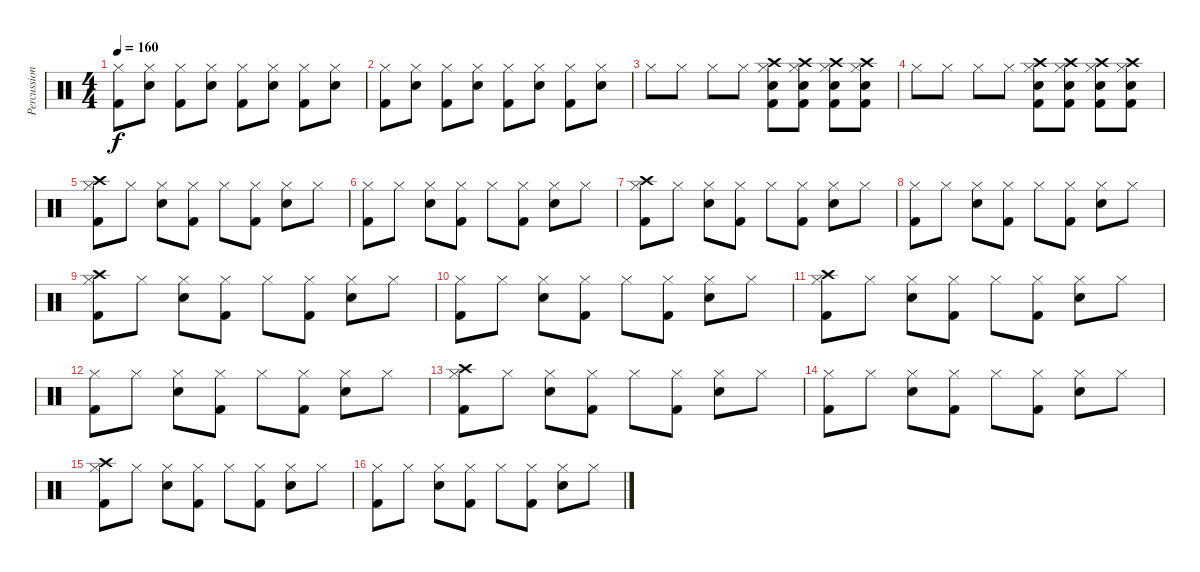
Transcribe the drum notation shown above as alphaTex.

\track ("Percussion" "Percussion") {instrument percussion}
\staff {score}
\articulation defaults
\ts (4 4)
\tempo 160
\clef neutral
\ks c
("Hi-Hat (closed)" "Kick (hit) 2").8{dy f} ("Hi-Hat (closed)" "Electric Snare (hit)").8 ("Hi-Hat (closed)" "Kick (hit) 2").8 ("Hi-Hat (closed)" "Electric Snare (hit)").8 ("Hi-Hat (closed)" "Kick (hit) 2").8 ("Hi-Hat (closed)" "Electric Snare (hit)").8 ("Hi-Hat (closed)" "Kick (hit) 2").8 ("Hi-Hat (closed)" "Electric Snare (hit)").8 |
("Hi-Hat (closed)" "Kick (hit) 2").8 ("Hi-Hat (closed)" "Electric Snare (hit)").8 ("Hi-Hat (closed)" "Kick (hit) 2").8 ("Hi-Hat (closed)" "Electric Snare (hit)").8 ("Hi-Hat (closed)" "Kick (hit) 2").8 ("Hi-Hat (closed)" "Electric Snare (hit)").8 ("Hi-Hat (closed)" "Kick (hit) 2").8 ("Hi-Hat (closed)" "Electric Snare (hit)").8 |
"Hi-Hat (closed)".8 "Hi-Hat (closed)".8 "Hi-Hat (closed)".8 "Hi-Hat (closed)".8 ("Hi-Hat (closed)" "Electric Snare (hit)" "Kick (hit) 2" "Crash high (hit)").8 ("Hi-Hat (closed)" "Electric Snare (hit)" "Kick (hit) 2" "Crash high (hit)").8 ("Hi-Hat (closed)" "Electric Snare (hit)" "Kick (hit) 2" "Crash high (hit)").8 ("Hi-Hat (closed)" "Electric Snare (hit)" "Kick (hit) 2" "Crash high (hit)").8 |
"Hi-Hat (closed)".8 "Hi-Hat (closed)".8 "Hi-Hat (closed)".8 "Hi-Hat (closed)".8 ("Hi-Hat (closed)" "Electric Snare (hit)" "Kick (hit) 2" "Crash high (hit)").8 ("Hi-Hat (closed)" "Electric Snare (hit)" "Kick (hit) 2" "Crash high (hit)").8 ("Hi-Hat (closed)" "Electric Snare (hit)" "Kick (hit) 2" "Crash high (hit)").8 ("Hi-Hat (closed)" "Electric Snare (hit)" "Kick (hit) 2" "Crash high (hit)").8 |
("Hi-Hat (closed)" "Kick (hit) 2" "Crash high (hit)").8 "Hi-Hat (closed)".8 ("Hi-Hat (closed)" "Electric Snare (hit)").8 ("Hi-Hat (closed)" "Kick (hit) 2").8 "Hi-Hat (closed)".8 ("Hi-Hat (closed)" "Kick (hit) 2").8 ("Hi-Hat (closed)" "Electric Snare (hit)").8 "Hi-Hat (closed)".8 |
("Hi-Hat (closed)" "Kick (hit) 2").8 "Hi-Hat (closed)".8 ("Hi-Hat (closed)" "Electric Snare (hit)").8 ("Hi-Hat (closed)" "Kick (hit) 2").8 "Hi-Hat (closed)".8 ("Hi-Hat (closed)" "Kick (hit) 2").8 ("Hi-Hat (closed)" "Electric Snare (hit)").8 "Hi-Hat (closed)".8 |
("Hi-Hat (closed)" "Kick (hit) 2" "Crash high (hit)").8 "Hi-Hat (closed)".8 ("Hi-Hat (closed)" "Electric Snare (hit)").8 ("Hi-Hat (closed)" "Kick (hit) 2").8 "Hi-Hat (closed)".8 ("Hi-Hat (closed)" "Kick (hit) 2").8 ("Hi-Hat (closed)" "Electric Snare (hit)").8 "Hi-Hat (closed)".8 |
("Hi-Hat (closed)" "Kick (hit) 2").8 "Hi-Hat (closed)".8 ("Hi-Hat (closed)" "Electric Snare (hit)").8 ("Hi-Hat (closed)" "Kick (hit) 2").8 "Hi-Hat (closed)".8 ("Hi-Hat (closed)" "Kick (hit) 2").8 ("Hi-Hat (closed)" "Electric Snare (hit)").8 "Hi-Hat (closed)".8 |
("Hi-Hat (closed)" "Kick (hit) 2" "Crash high (hit)").8 "Hi-Hat (closed)".8 ("Hi-Hat (closed)" "Electric Snare (hit)").8 ("Hi-Hat (closed)" "Kick (hit) 2").8 "Hi-Hat (closed)".8 ("Hi-Hat (closed)" "Kick (hit) 2").8 ("Hi-Hat (closed)" "Electric Snare (hit)").8 "Hi-Hat (closed)".8 |
("Hi-Hat (closed)" "Kick (hit) 2").8 "Hi-Hat (closed)".8 ("Hi-Hat (closed)" "Electric Snare (hit)").8 ("Hi-Hat (closed)" "Kick (hit) 2").8 "Hi-Hat (closed)".8 ("Hi-Hat (closed)" "Kick (hit) 2").8 ("Hi-Hat (closed)" "Electric Snare (hit)").8 "Hi-Hat (closed)".8 |
("Hi-Hat (closed)" "Kick (hit) 2" "Crash high (hit)").8 "Hi-Hat (closed)".8 ("Hi-Hat (closed)" "Electric Snare (hit)").8 ("Hi-Hat (closed)" "Kick (hit) 2").8 "Hi-Hat (closed)".8 ("Hi-Hat (closed)" "Kick (hit) 2").8 ("Hi-Hat (closed)" "Electric Snare (hit)").8 "Hi-Hat (closed)".8 |
("Hi-Hat (closed)" "Kick (hit) 2").8 "Hi-Hat (closed)".8 ("Hi-Hat (closed)" "Electric Snare (hit)").8 ("Hi-Hat (closed)" "Kick (hit) 2").8 "Hi-Hat (closed)".8 ("Hi-Hat (closed)" "Kick (hit) 2").8 ("Hi-Hat (closed)" "Electric Snare (hit)").8 "Hi-Hat (closed)".8 |
("Hi-Hat (closed)" "Kick (hit) 2" "Crash high (hit)").8 "Hi-Hat (closed)".8 ("Hi-Hat (closed)" "Electric Snare (hit)").8 ("Hi-Hat (closed)" "Kick (hit) 2").8 "Hi-Hat (closed)".8 ("Hi-Hat (closed)" "Kick (hit) 2").8 ("Hi-Hat (closed)" "Electric Snare (hit)").8 "Hi-Hat (closed)".8 |
("Hi-Hat (closed)" "Kick (hit) 2").8 "Hi-Hat (closed)".8 ("Hi-Hat (closed)" "Electric Snare (hit)").8 ("Hi-Hat (closed)" "Kick (hit) 2").8 "Hi-Hat (closed)".8 ("Hi-Hat (closed)" "Kick (hit) 2").8 ("Hi-Hat (closed)" "Electric Snare (hit)").8 "Hi-Hat (closed)".8 |
("Hi-Hat (closed)" "Kick (hit) 2" "Crash high (hit)").8 "Hi-Hat (closed)".8 ("Hi-Hat (closed)" "Electric Snare (hit)").8 ("Hi-Hat (closed)" "Kick (hit) 2").8 "Hi-Hat (closed)".8 ("Hi-Hat (closed)" "Kick (hit) 2").8 ("Hi-Hat (closed)" "Electric Snare (hit)").8 "Hi-Hat (closed)".8 |
("Hi-Hat (closed)" "Kick (hit) 2").8 "Hi-Hat (closed)".8 ("Hi-Hat (closed)" "Electric Snare (hit)").8 ("Hi-Hat (closed)" "Kick (hit) 2").8 "Hi-Hat (closed)".8 ("Hi-Hat (closed)" "Kick (hit) 2").8 ("Hi-Hat (closed)" "Electric Snare (hit)").8 "Hi-Hat (closed)".8
